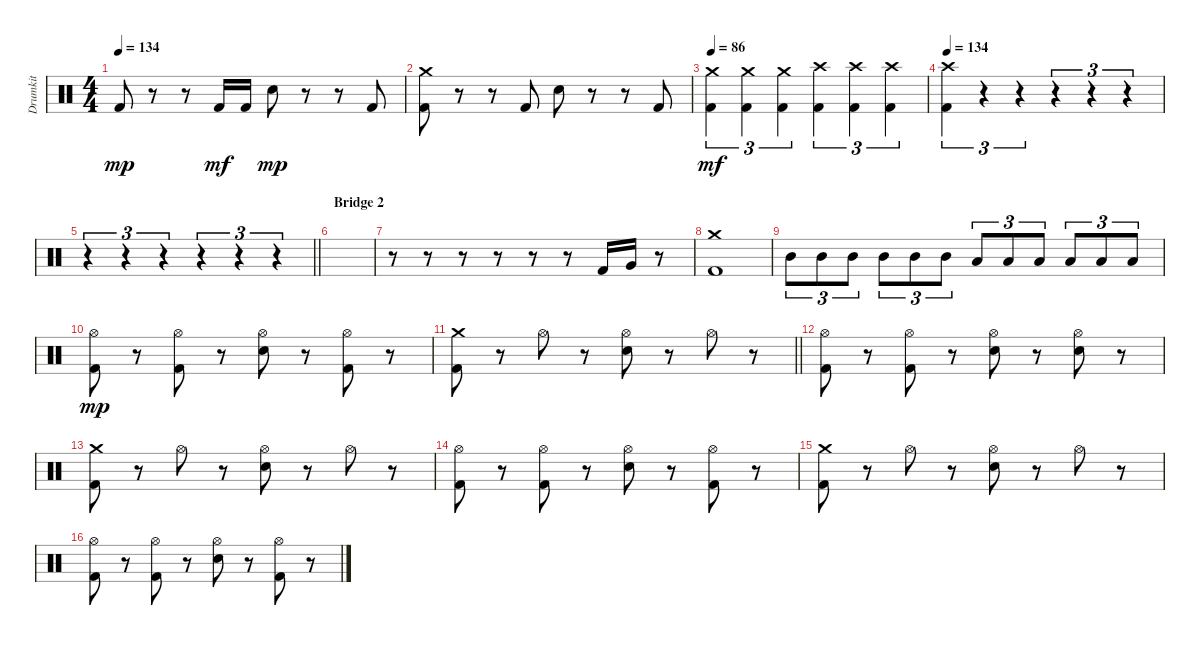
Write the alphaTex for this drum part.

\track ("Drumkit" "Drumkit") {instrument percussion}
\staff {score}
\articulation defaults
\ts (4 4)
\tempo 134
\clef neutral
\ks c "Kick (hit) 2".8{dy mp}
r.8 r.8 "Kick (hit) 2".16{dy mf} "Kick (hit) 2".16 "Snare (hit) 2".8{dy mp} r.8 r.8 "Kick (hit) 2".8 |
("Kick (hit) 2" "Crash medium (hit)").8 r.8 r.8 "Kick (hit) 2".8 "Snare (hit) 2".8 r.8 r.8 "Kick (hit) 2".8 |
\tempo 86
("Kick (hit) 2" "Crash medium (hit)").4{tu (3 2) dy mf} ("Kick (hit) 2" "Crash medium (hit)").4{tu (3 2)} ("Kick (hit) 2" "Crash medium (hit)").4{tu (3 2)} ("Kick (hit) 2" "Crash high (hit)").4{tu (3 2)} ("Kick (hit) 2" "Crash high (hit)").4{tu (3 2)} ("Kick (hit) 2" "Crash high (hit)").4{tu (3 2)} |
\tempo 134
("Kick (hit) 2" "Crash high (hit)").4{tu (3 2)} r.4{tu (3 2)} r.4{tu (3 2)} r.4{tu (3 2)} r.4{tu (3 2)} r.4{tu (3 2)} |
\barLineRight lightlight
r.4{tu (3 2)} r.4{tu (3 2)} r.4{tu (3 2)} r.4{tu (3 2)} r.4{tu (3 2)} r.4{tu (3 2)} |
\section ("" "Bridge 2")
|
r.8 r.8 r.8 r.8 r.8 r.8 "Kick (hit) 2".16 "Very Low Tom (hit)".16 r.8 |
("Kick (hit) 2" "Crash medium (hit)").1 |
"Mid Tom (hit)".8{tu (3 2)} "Mid Tom (hit)".8{tu (3 2)} "Mid Tom (hit)".8{tu (3 2)} "Mid Tom (hit)".8{tu (3 2)} "Mid Tom (hit)".8{tu (3 2)} "Mid Tom (hit)".8{tu (3 2)} "Low Tom (hit)".8{tu (3 2)} "Low Tom (hit)".8{tu (3 2)} "Low Tom (hit)".8{tu (3 2)} "Low Tom (hit)".8{tu (3 2)} "Low Tom (hit)".8{tu (3 2)} "Low Tom (hit)".8{tu (3 2)} |
("Hi-Hat (open)" "Kick (hit) 2").8{dy mp} r.8 ("Hi-Hat (open)" "Kick (hit) 2").8 r.8 ("Snare (hit) 2" "Hi-Hat (open)").8 r.8 ("Hi-Hat (open)" "Kick (hit) 2").8 r.8 |
\barLineRight lightlight
("Kick (hit) 2" "Crash medium (hit)").8 r.8 "Hi-Hat (open)".8 r.8 ("Snare (hit) 2" "Hi-Hat (open)").8 r.8 "Hi-Hat (open)".8 r.8 |
("Hi-Hat (open)" "Kick (hit) 2").8 r.8 ("Hi-Hat (open)" "Kick (hit) 2").8 r.8 ("Snare (hit) 2" "Hi-Hat (open)").8 r.8 ("Hi-Hat (open)" "Snare (hit) 2").8 r.8 |
("Kick (hit) 2" "Crash medium (hit)").8 r.8 "Hi-Hat (open)".8 r.8 ("Snare (hit) 2" "Hi-Hat (open)").8 r.8 "Hi-Hat (open)".8 r.8 |
("Hi-Hat (open)" "Kick (hit) 2").8 r.8 ("Hi-Hat (open)" "Kick (hit) 2").8 r.8 ("Snare (hit) 2" "Hi-Hat (open)").8 r.8 ("Hi-Hat (open)" "Kick (hit) 2").8 r.8 |
("Kick (hit) 2" "Crash medium (hit)").8 r.8 "Hi-Hat (open)".8 r.8 ("Snare (hit) 2" "Hi-Hat (open)").8 r.8 "Hi-Hat (open)".8 r.8 |
("Hi-Hat (open)" "Kick (hit) 2").8 r.8 ("Hi-Hat (open)" "Kick (hit) 2").8 r.8 ("Snare (hit) 2" "Hi-Hat (open)").8 r.8 ("Hi-Hat (open)" "Kick (hit) 2").8 r.8
